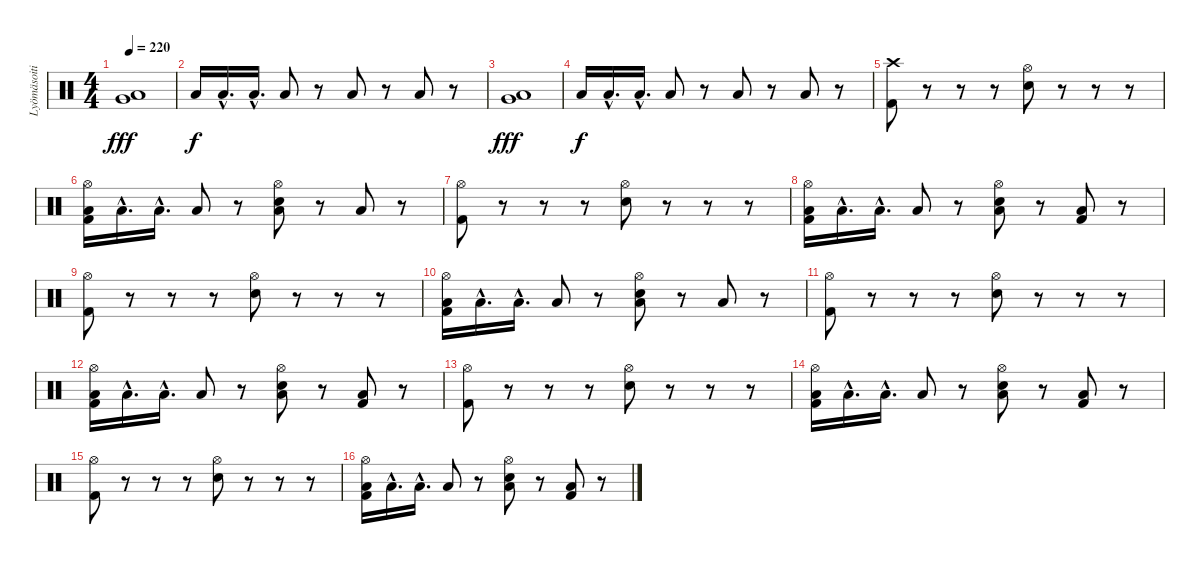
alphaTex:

\track ("Lyömäsoitin" "Lyömäsoiti") {instrument percussion}
\staff {score}
\articulation defaults
\ts (4 4)
\tempo 220
\clef neutral
\ks c
("Very Low Tom (hit)" "Low Floor Tom (hit)").1{dy fff} |
"Low Floor Tom (hit)".16{dy f} "Low Floor Tom (hit)"{hac}.16{d} "Low Floor Tom (hit)"{hac}.16{d} "Low Floor Tom (hit)".8 r.8 "Low Floor Tom (hit)".8 r.8 "Low Floor Tom (hit)".8 r.8 |
("Very Low Tom (hit)" "Low Floor Tom (hit)").1{dy fff} |
"Low Floor Tom (hit)".16{dy f} "Low Floor Tom (hit)"{hac}.16{d} "Low Floor Tom (hit)"{hac}.16{d} "Low Floor Tom (hit)".8 r.8 "Low Floor Tom (hit)".8 r.8 "Low Floor Tom (hit)".8 r.8 |
("Crash high (hit)" "Kick (hit) 2").8 r.8 r.8 r.8 ("Hi-Hat (open)" "Electric Snare (hit)").8 r.8 r.8 r.8 |
("Low Floor Tom (hit)" "Hi-Hat (open)" "Kick (hit) 2").16 "Low Floor Tom (hit)"{hac}.16{d} "Low Floor Tom (hit)"{hac}.16{d} "Low Floor Tom (hit)".8 r.8 ("Low Floor Tom (hit)" "Hi-Hat (open)" "Electric Snare (hit)").8 r.8 "Low Floor Tom (hit)".8 r.8 |
("Hi-Hat (open)" "Kick (hit) 2").8 r.8 r.8 r.8 ("Hi-Hat (open)" "Electric Snare (hit)").8 r.8 r.8 r.8 |
("Low Floor Tom (hit)" "Hi-Hat (open)" "Kick (hit) 2").16 "Low Floor Tom (hit)"{hac}.16{d} "Low Floor Tom (hit)"{hac}.16{d} "Low Floor Tom (hit)".8 r.8 ("Low Floor Tom (hit)" "Hi-Hat (open)" "Electric Snare (hit)").8 r.8 ("Low Floor Tom (hit)" "Kick (hit) 2").8 r.8 |
("Hi-Hat (open)" "Kick (hit) 2").8 r.8 r.8 r.8 ("Hi-Hat (open)" "Electric Snare (hit)").8 r.8 r.8 r.8 |
("Low Floor Tom (hit)" "Hi-Hat (open)" "Kick (hit) 2").16 "Low Floor Tom (hit)"{hac}.16{d} "Low Floor Tom (hit)"{hac}.16{d} "Low Floor Tom (hit)".8 r.8 ("Low Floor Tom (hit)" "Hi-Hat (open)" "Electric Snare (hit)").8 r.8 "Low Floor Tom (hit)".8 r.8 |
("Hi-Hat (open)" "Kick (hit) 2").8 r.8 r.8 r.8 ("Hi-Hat (open)" "Electric Snare (hit)").8 r.8 r.8 r.8 |
("Low Floor Tom (hit)" "Hi-Hat (open)" "Kick (hit) 2").16 "Low Floor Tom (hit)"{hac}.16{d} "Low Floor Tom (hit)"{hac}.16{d} "Low Floor Tom (hit)".8 r.8 ("Low Floor Tom (hit)" "Hi-Hat (open)" "Electric Snare (hit)").8 r.8 ("Low Floor Tom (hit)" "Kick (hit) 2").8 r.8 |
("Hi-Hat (open)" "Kick (hit) 2").8 r.8 r.8 r.8 ("Hi-Hat (open)" "Electric Snare (hit)").8 r.8 r.8 r.8 |
("Low Floor Tom (hit)" "Hi-Hat (open)" "Kick (hit) 2").16 "Low Floor Tom (hit)"{hac}.16{d} "Low Floor Tom (hit)"{hac}.16{d} "Low Floor Tom (hit)".8 r.8 ("Low Floor Tom (hit)" "Hi-Hat (open)" "Electric Snare (hit)").8 r.8 ("Low Floor Tom (hit)" "Kick (hit) 2").8 r.8 |
("Hi-Hat (open)" "Kick (hit) 2").8 r.8 r.8 r.8 ("Hi-Hat (open)" "Electric Snare (hit)").8 r.8 r.8 r.8 |
("Low Floor Tom (hit)" "Hi-Hat (open)" "Kick (hit) 2").16 "Low Floor Tom (hit)"{hac}.16{d} "Low Floor Tom (hit)"{hac}.16{d} "Low Floor Tom (hit)".8 r.8 ("Low Floor Tom (hit)" "Hi-Hat (open)" "Electric Snare (hit)").8 r.8 ("Low Floor Tom (hit)" "Kick (hit) 2").8 r.8
